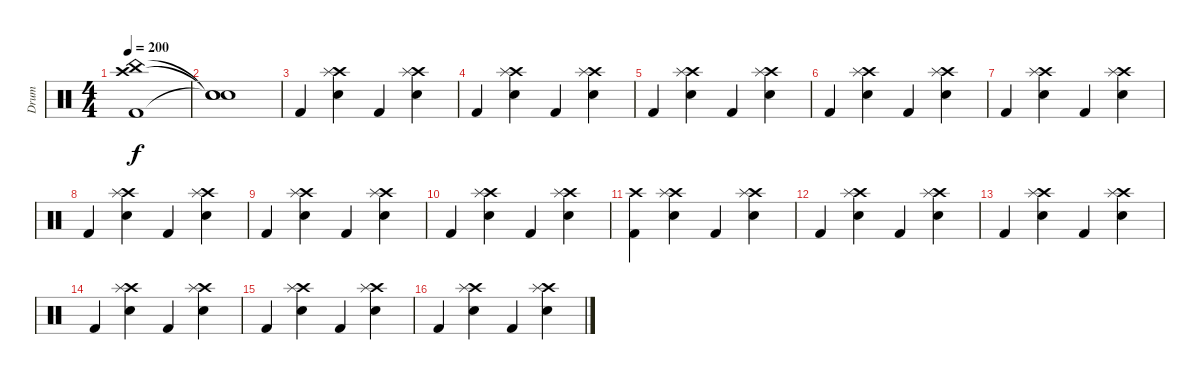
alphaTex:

\track ("Drum" "Drum") {instrument percussion}
\staff {score}
\articulation defaults
\ts (4 4)
\tempo 200
\clef neutral
\ks c
("China (hit)" "Crash high (hit)" "Kick (hit) 2").1{dy f} |
("Snare (hit)"{t} "Snare (hit)"{t} "Snare (hit)"{t}).1 |
"Kick (hit) 2".4 ("Crash high (hit)" "Splash (hit)" "Electric Snare (hit)").4 "Kick (hit) 2".4 ("Crash high (hit)" "Splash (hit)" "Electric Snare (hit)").4 |
"Kick (hit) 2".4 ("Crash high (hit)" "Splash (hit)" "Electric Snare (hit)").4 "Kick (hit) 2".4 ("Crash high (hit)" "Splash (hit)" "Electric Snare (hit)").4 |
"Kick (hit) 2".4 ("Crash high (hit)" "Splash (hit)" "Electric Snare (hit)").4 "Kick (hit) 2".4 ("Crash high (hit)" "Splash (hit)" "Electric Snare (hit)").4 |
"Kick (hit) 2".4 ("Crash high (hit)" "Splash (hit)" "Electric Snare (hit)").4 "Kick (hit) 2".4 ("Crash high (hit)" "Splash (hit)" "Electric Snare (hit)").4 |
"Kick (hit) 2".4 ("Crash high (hit)" "Splash (hit)" "Electric Snare (hit)").4 "Kick (hit) 2".4 ("Crash high (hit)" "Splash (hit)" "Electric Snare (hit)").4 |
"Kick (hit) 2".4 ("Crash high (hit)" "Splash (hit)" "Electric Snare (hit)").4 "Kick (hit) 2".4 ("Crash high (hit)" "Splash (hit)" "Electric Snare (hit)").4 |
"Kick (hit) 2".4 ("Crash high (hit)" "Splash (hit)" "Electric Snare (hit)").4 "Kick (hit) 2".4 ("Crash high (hit)" "Splash (hit)" "Electric Snare (hit)").4 |
"Kick (hit) 2".4 ("Crash high (hit)" "Splash (hit)" "Electric Snare (hit)").4 "Kick (hit) 2".4 ("Crash high (hit)" "Splash (hit)" "Electric Snare (hit)").4 |
("Crash high (hit)" "Kick (hit) 2").4 ("Crash high (hit)" "Splash (hit)" "Electric Snare (hit)").4 "Kick (hit) 2".4 ("Crash high (hit)" "Splash (hit)" "Electric Snare (hit)").4 |
"Kick (hit) 2".4 ("Crash high (hit)" "Splash (hit)" "Electric Snare (hit)").4 "Kick (hit) 2".4 ("Crash high (hit)" "Splash (hit)" "Electric Snare (hit)").4 |
"Kick (hit) 2".4 ("Crash high (hit)" "Splash (hit)" "Electric Snare (hit)").4 "Kick (hit) 2".4 ("Crash high (hit)" "Splash (hit)" "Electric Snare (hit)").4 |
"Kick (hit) 2".4 ("Crash high (hit)" "Splash (hit)" "Electric Snare (hit)").4 "Kick (hit) 2".4 ("Crash high (hit)" "Splash (hit)" "Electric Snare (hit)").4 |
"Kick (hit) 2".4 ("Crash high (hit)" "Splash (hit)" "Electric Snare (hit)").4 "Kick (hit) 2".4 ("Crash high (hit)" "Splash (hit)" "Electric Snare (hit)").4 |
"Kick (hit) 2".4 ("Crash high (hit)" "Splash (hit)" "Electric Snare (hit)").4 "Kick (hit) 2".4 ("Crash high (hit)" "Splash (hit)" "Electric Snare (hit)").4
